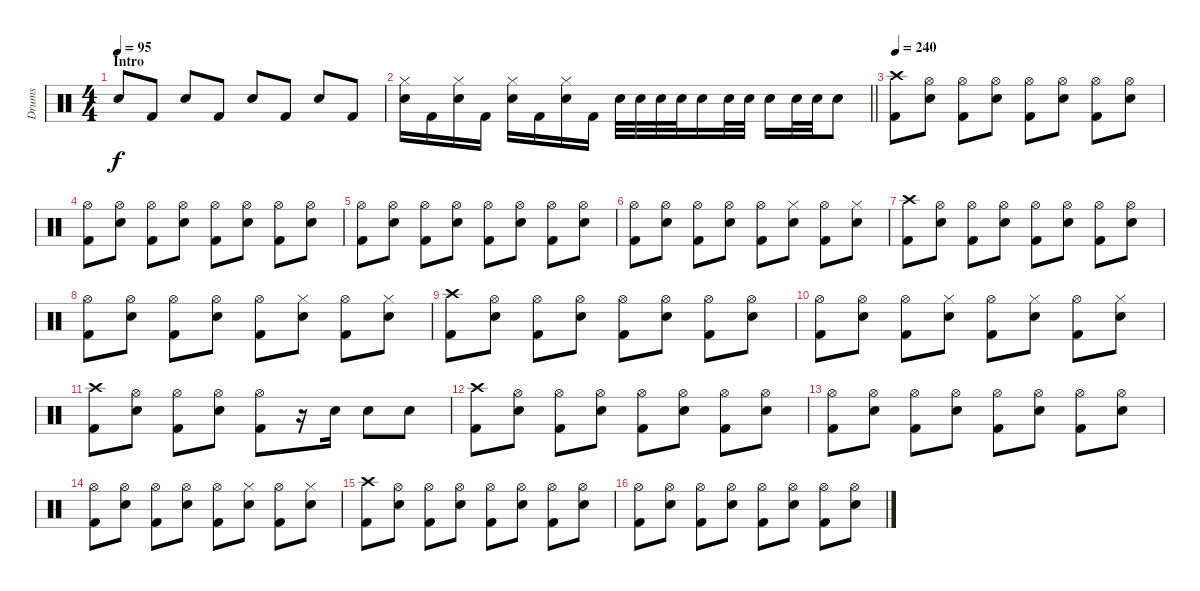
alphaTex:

\track ("Drums" "Drums") {instrument percussion}
\staff {score}
\articulation defaults
\ts (4 4)
\section ("" "Intro")
\tempo 95
\clef neutral
\ks c "Snare (hit) 2".8{dy f} "Kick (hit) 2".8 "Snare (hit) 2".8 "Kick (hit) 2".8 "Snare (hit) 2".8 "Kick (hit) 2".8 "Snare (hit) 2".8 "Kick (hit) 2".8
|
\barLineRight lightlight
("Hi-Hat (closed)" "Snare (hit) 2").16 "Kick (hit) 2".16 ("Hi-Hat (closed)" "Snare (hit) 2").16 "Kick (hit) 2".16 ("Hi-Hat (closed)" "Snare (hit) 2").16 "Kick (hit) 2".16 ("Hi-Hat (closed)" "Snare (hit) 2").16 "Kick (hit) 2".16 "Snare (hit) 2".32 "Snare (hit) 2".32 "Snare (hit) 2".32 "Snare (hit) 2".32 "Snare (hit) 2".16 "Snare (hit) 2".32 "Snare (hit) 2".32 "Snare (hit) 2".16 "Snare (hit) 2".32 "Snare (hit) 2".32 "Snare (hit) 2".8 |
\tempo 240
("Crash high (hit)" "Kick (hit) 2").8 ("Hi-Hat (open)" "Snare (hit) 2").8 ("Hi-Hat (open)" "Kick (hit) 2").8 ("Hi-Hat (open)" "Snare (hit) 2").8 ("Hi-Hat (open)" "Kick (hit) 2").8 ("Hi-Hat (open)" "Snare (hit) 2").8 ("Hi-Hat (open)" "Kick (hit) 2").8 ("Hi-Hat (open)" "Snare (hit) 2").8 |
("Hi-Hat (open)" "Kick (hit) 2").8 ("Hi-Hat (open)" "Snare (hit) 2").8 ("Hi-Hat (open)" "Kick (hit) 2").8 ("Hi-Hat (open)" "Snare (hit) 2").8 ("Hi-Hat (open)" "Kick (hit) 2").8 ("Hi-Hat (open)" "Snare (hit) 2").8 ("Hi-Hat (open)" "Kick (hit) 2").8 ("Hi-Hat (open)" "Snare (hit) 2").8 |
("Hi-Hat (open)" "Kick (hit) 2").8 ("Hi-Hat (open)" "Snare (hit) 2").8 ("Hi-Hat (open)" "Kick (hit) 2").8 ("Hi-Hat (open)" "Snare (hit) 2").8 ("Hi-Hat (open)" "Kick (hit) 2").8 ("Hi-Hat (open)" "Snare (hit) 2").8 ("Hi-Hat (open)" "Kick (hit) 2").8 ("Hi-Hat (open)" "Snare (hit) 2").8 |
("Hi-Hat (open)" "Kick (hit) 2").8 ("Hi-Hat (open)" "Snare (hit) 2").8 ("Hi-Hat (open)" "Kick (hit) 2").8 ("Hi-Hat (open)" "Snare (hit) 2").8 ("Hi-Hat (open)" "Kick (hit) 2").8 ("Hi-Hat (closed)" "Snare (hit) 2").8 ("Hi-Hat (open)" "Kick (hit) 2").8 ("Hi-Hat (closed)" "Snare (hit) 2").8 |
("Crash high (hit)" "Kick (hit) 2").8 ("Hi-Hat (open)" "Snare (hit) 2").8 ("Hi-Hat (open)" "Kick (hit) 2").8 ("Hi-Hat (open)" "Snare (hit) 2").8 ("Hi-Hat (open)" "Kick (hit) 2").8 ("Hi-Hat (open)" "Snare (hit) 2").8 ("Hi-Hat (open)" "Kick (hit) 2").8 ("Hi-Hat (open)" "Snare (hit) 2").8 |
("Hi-Hat (open)" "Kick (hit) 2").8 ("Hi-Hat (open)" "Snare (hit) 2").8 ("Hi-Hat (open)" "Kick (hit) 2").8 ("Hi-Hat (open)" "Snare (hit) 2").8 ("Hi-Hat (open)" "Kick (hit) 2").8 ("Hi-Hat (closed)" "Snare (hit) 2").8 ("Hi-Hat (open)" "Kick (hit) 2").8 ("Hi-Hat (closed)" "Snare (hit) 2").8 |
("Crash high (hit)" "Kick (hit) 2").8 ("Hi-Hat (open)" "Snare (hit) 2").8 ("Hi-Hat (open)" "Kick (hit) 2").8 ("Hi-Hat (open)" "Snare (hit) 2").8 ("Hi-Hat (open)" "Kick (hit) 2").8 ("Hi-Hat (open)" "Snare (hit) 2").8 ("Hi-Hat (open)" "Kick (hit) 2").8 ("Hi-Hat (open)" "Snare (hit) 2").8 |
("Hi-Hat (open)" "Kick (hit) 2").8 ("Hi-Hat (open)" "Snare (hit) 2").8 ("Hi-Hat (open)" "Kick (hit) 2").8 ("Hi-Hat (closed)" "Snare (hit) 2").8 ("Hi-Hat (open)" "Kick (hit) 2").8 ("Hi-Hat (closed)" "Snare (hit) 2").8 ("Hi-Hat (open)" "Kick (hit) 2").8 ("Hi-Hat (closed)" "Snare (hit) 2").8 |
("Crash high (hit)" "Kick (hit) 2").8 ("Hi-Hat (open)" "Snare (hit) 2").8 ("Hi-Hat (open)" "Kick (hit) 2").8 ("Hi-Hat (open)" "Snare (hit) 2").8 ("Hi-Hat (open)" "Kick (hit) 2").8 r.16 "Snare (hit) 2".16 "Snare (hit) 2".8 "Snare (hit) 2".8 |
("Crash high (hit)" "Kick (hit) 2").8 ("Hi-Hat (open)" "Snare (hit) 2").8 ("Hi-Hat (open)" "Kick (hit) 2").8 ("Hi-Hat (open)" "Snare (hit) 2").8 ("Hi-Hat (open)" "Kick (hit) 2").8 ("Hi-Hat (open)" "Snare (hit) 2").8 ("Hi-Hat (open)" "Kick (hit) 2").8 ("Hi-Hat (open)" "Snare (hit) 2").8 |
("Hi-Hat (open)" "Kick (hit) 2").8 ("Hi-Hat (open)" "Snare (hit) 2").8 ("Hi-Hat (open)" "Kick (hit) 2").8 ("Hi-Hat (open)" "Snare (hit) 2").8 ("Hi-Hat (open)" "Kick (hit) 2").8 ("Hi-Hat (open)" "Snare (hit) 2").8 ("Hi-Hat (open)" "Kick (hit) 2").8 ("Hi-Hat (open)" "Snare (hit) 2").8 |
("Hi-Hat (open)" "Kick (hit) 2").8 ("Hi-Hat (open)" "Snare (hit) 2").8 ("Hi-Hat (open)" "Kick (hit) 2").8 ("Hi-Hat (open)" "Snare (hit) 2").8 ("Hi-Hat (open)" "Kick (hit) 2").8 ("Hi-Hat (closed)" "Snare (hit) 2").8 ("Hi-Hat (open)" "Kick (hit) 2").8 ("Hi-Hat (closed)" "Snare (hit) 2").8 |
("Crash high (hit)" "Kick (hit) 2").8 ("Hi-Hat (open)" "Snare (hit) 2").8 ("Hi-Hat (open)" "Kick (hit) 2").8 ("Hi-Hat (open)" "Snare (hit) 2").8 ("Hi-Hat (open)" "Kick (hit) 2").8 ("Hi-Hat (open)" "Snare (hit) 2").8 ("Hi-Hat (open)" "Kick (hit) 2").8 ("Hi-Hat (open)" "Snare (hit) 2").8 |
("Hi-Hat (open)" "Kick (hit) 2").8 ("Hi-Hat (open)" "Snare (hit) 2").8 ("Hi-Hat (open)" "Kick (hit) 2").8 ("Hi-Hat (open)" "Snare (hit) 2").8 ("Hi-Hat (open)" "Kick (hit) 2").8 ("Hi-Hat (open)" "Snare (hit) 2").8 ("Hi-Hat (open)" "Kick (hit) 2").8 ("Hi-Hat (open)" "Snare (hit) 2").8
